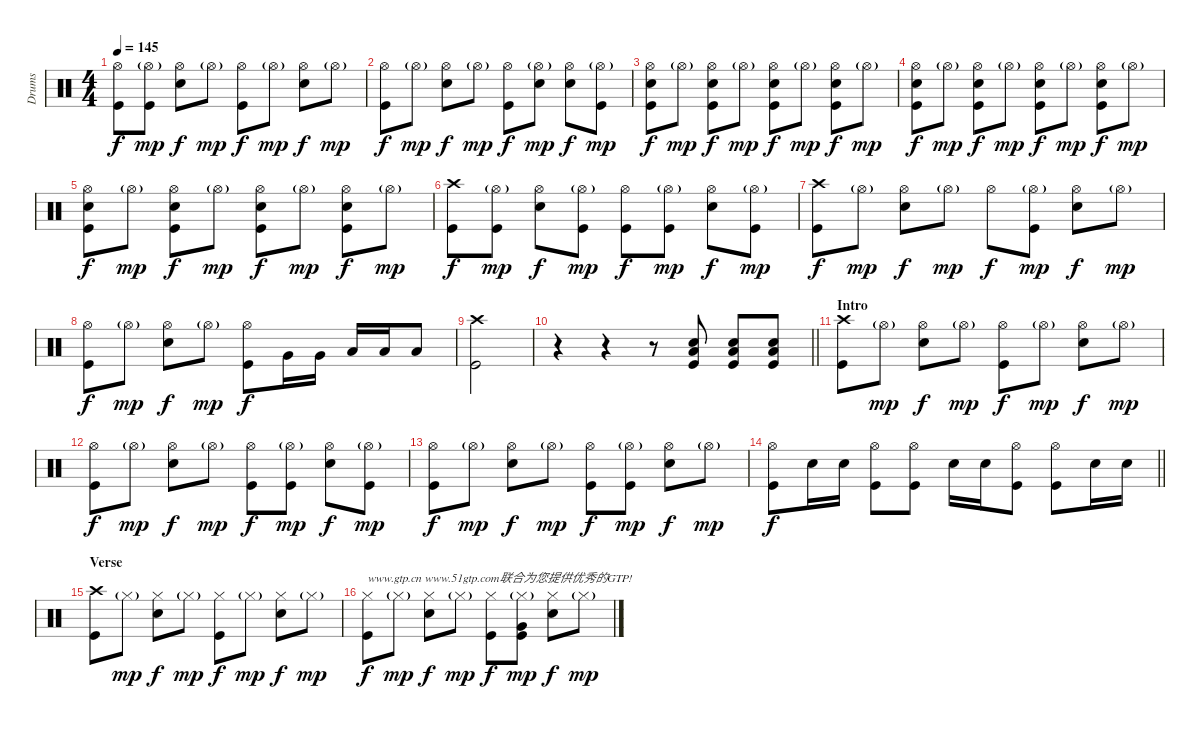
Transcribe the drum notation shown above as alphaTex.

\track ("Drums" "Drums") {instrument percussion}
\staff {score}
\articulation defaults
\ts (4 4)
\tempo 145
\clef neutral
\ks c
("Hi-Hat (open)" "Kick (hit)").8{dy f} ("Hi-Hat (open)"{g} "Kick (hit)").8{dy mp} ("Hi-Hat (open)" "Snare (hit) 2").8{dy f} "Hi-Hat (open)"{g}.8{dy mp} ("Hi-Hat (open)" "Kick (hit)").8{dy f} "Hi-Hat (open)"{g}.8{dy mp} ("Hi-Hat (open)" "Snare (hit) 2").8{dy f} "Hi-Hat (open)"{g}.8{dy mp} |
("Hi-Hat (open)" "Kick (hit)").8{dy f} "Hi-Hat (open)"{g}.8{dy mp} ("Hi-Hat (open)" "Snare (hit) 2").8{dy f} "Hi-Hat (open)"{g}.8{dy mp} ("Hi-Hat (open)" "Kick (hit)").8{dy f} ("Hi-Hat (open)"{g} "Snare (hit) 2").8{dy mp} ("Hi-Hat (open)" "Snare (hit) 2").8{dy f} ("Hi-Hat (open)"{g} "Kick (hit)").8{dy mp} |
("Hi-Hat (open)" "Snare (hit) 2" "Kick (hit)").8{dy f} "Hi-Hat (open)"{g}.8{dy mp} ("Hi-Hat (open)" "Snare (hit) 2" "Kick (hit)").8{dy f} "Hi-Hat (open)"{g}.8{dy mp} ("Hi-Hat (open)" "Snare (hit) 2" "Kick (hit)").8{dy f} "Hi-Hat (open)"{g}.8{dy mp} ("Hi-Hat (open)" "Snare (hit) 2" "Kick (hit)").8{dy f} "Hi-Hat (open)"{g}.8{dy mp} |
("Hi-Hat (open)" "Snare (hit) 2" "Kick (hit)").8{dy f} "Hi-Hat (open)"{g}.8{dy mp} ("Hi-Hat (open)" "Snare (hit) 2" "Kick (hit)").8{dy f} "Hi-Hat (open)"{g}.8{dy mp} ("Hi-Hat (open)" "Snare (hit) 2" "Kick (hit)").8{dy f} "Hi-Hat (open)"{g}.8{dy mp} ("Hi-Hat (open)" "Snare (hit) 2" "Kick (hit)").8{dy f} "Hi-Hat (open)"{g}.8{dy mp} |
("Hi-Hat (open)" "Snare (hit) 2" "Kick (hit)").8{dy f} "Hi-Hat (open)"{g}.8{dy mp} ("Hi-Hat (open)" "Snare (hit) 2" "Kick (hit)").8{dy f} "Hi-Hat (open)"{g}.8{dy mp} ("Hi-Hat (open)" "Snare (hit) 2" "Kick (hit)").8{dy f} "Hi-Hat (open)"{g}.8{dy mp} ("Hi-Hat (open)" "Snare (hit) 2" "Kick (hit)").8{dy f} "Hi-Hat (open)"{g}.8{dy mp} |
("Crash high (hit)" "Kick (hit)").8{dy f} ("Hi-Hat (open)"{g} "Kick (hit)").8{dy mp} ("Hi-Hat (open)" "Snare (hit) 2").8{dy f} ("Hi-Hat (open)"{g} "Kick (hit)").8{dy mp} ("Hi-Hat (open)" "Kick (hit)").8{dy f} ("Hi-Hat (open)"{g} "Kick (hit)").8{dy mp} ("Hi-Hat (open)" "Snare (hit) 2").8{dy f} ("Hi-Hat (open)"{g} "Kick (hit)").8{dy mp} |
("Crash high (hit)" "Kick (hit)").8{dy f} "Hi-Hat (open)"{g}.8{dy mp} ("Hi-Hat (open)" "Snare (hit) 2").8{dy f} "Hi-Hat (open)"{g}.8{dy mp} "Hi-Hat (open)".8{dy f} ("Hi-Hat (open)"{g} "Kick (hit)").8{dy mp} ("Hi-Hat (open)" "Snare (hit) 2").8{dy f} "Hi-Hat (open)"{g}.8{dy mp} |
("Hi-Hat (open)" "Kick (hit)").8{dy f} "Hi-Hat (open)"{g}.8{dy mp} ("Hi-Hat (open)" "Snare (hit) 2").8{dy f} "Hi-Hat (open)"{g}.8{dy mp} ("Hi-Hat (open)" "Kick (hit)").8{dy f} "Very Low Tom (hit)".16 "Very Low Tom (hit)".16 "Low Floor Tom (hit)".16 "Low Floor Tom (hit)".16 "Low Floor Tom (hit)".8 |
("Crash high (hit)" "Kick (hit)").2 |
\barLineRight lightlight
r.4 r.4 r.8 ("Snare (hit) 2" "Low Floor Tom (hit)" "Kick (hit)").8 ("Snare (hit) 2" "Low Floor Tom (hit)" "Kick (hit)").8 ("Snare (hit) 2" "Low Floor Tom (hit)" "Kick (hit)").8 |
\section ("" "Intro")
("Crash high (hit)" "Kick (hit)").8 "Hi-Hat (open)"{g}.8{dy mp} ("Hi-Hat (open)" "Snare (hit) 2").8{dy f} "Hi-Hat (open)"{g}.8{dy mp} ("Hi-Hat (open)" "Kick (hit)").8{dy f} "Hi-Hat (open)"{g}.8{dy mp} ("Hi-Hat (open)" "Snare (hit) 2").8{dy f} "Hi-Hat (open)"{g}.8{dy mp} |
("Hi-Hat (open)" "Kick (hit)").8{dy f} "Hi-Hat (open)"{g}.8{dy mp} ("Hi-Hat (open)" "Snare (hit) 2").8{dy f} "Hi-Hat (open)"{g}.8{dy mp} ("Hi-Hat (open)" "Kick (hit)").8{dy f} ("Hi-Hat (open)"{g} "Kick (hit)").8{dy mp} ("Hi-Hat (open)" "Snare (hit) 2").8{dy f} ("Hi-Hat (open)"{g} "Kick (hit)").8{dy mp} |
("Hi-Hat (open)" "Kick (hit)").8{dy f} "Hi-Hat (open)"{g}.8{dy mp} ("Hi-Hat (open)" "Snare (hit) 2").8{dy f} "Hi-Hat (open)"{g}.8{dy mp} ("Hi-Hat (open)" "Kick (hit)").8{dy f} ("Hi-Hat (open)"{g} "Kick (hit)").8{dy mp} ("Hi-Hat (open)" "Snare (hit) 2").8{dy f} "Hi-Hat (open)"{g}.8{dy mp} |
\barLineRight lightlight
("Hi-Hat (open)" "Kick (hit)").8{dy f} "Snare (hit) 2".16 "Snare (hit) 2".16 ("Hi-Hat (open)" "Kick (hit)").8 ("Hi-Hat (open)" "Kick (hit)").8 "Snare (hit) 2".16 "Snare (hit) 2".16 ("Hi-Hat (open)" "Kick (hit)").8 ("Hi-Hat (open)" "Kick (hit)").8 "Snare (hit) 2".16 "Snare (hit) 2".16 |
\section ("" "Verse")
("Crash high (hit)" "Kick (hit)").8 "Hi-Hat (closed)"{g}.8{dy mp} ("Hi-Hat (closed)" "Snare (hit) 2").8{dy f} "Hi-Hat (closed)"{g}.8{dy mp} ("Hi-Hat (closed)" "Kick (hit)").8{dy f} "Hi-Hat (closed)"{g}.8{dy mp} ("Hi-Hat (closed)" "Snare (hit) 2").8{dy f} "Hi-Hat (closed)"{g}.8{dy mp} |
("Hi-Hat (closed)" "Kick (hit)").8{txt "www.gtp.cn www.51gtp.com联合为您提供优秀的GTP!" dy f} "Hi-Hat (closed)"{g}.8{dy mp} ("Hi-Hat (closed)" "Snare (hit) 2").8{dy f} "Hi-Hat (closed)"{g}.8{dy mp} ("Hi-Hat (closed)" "Kick (hit)").8{dy f} ("Hi-Hat (closed)"{g} "Very Low Tom (hit)" "Kick (hit)").8{dy mp} ("Hi-Hat (closed)" "Snare (hit) 2").8{dy f} "Hi-Hat (closed)"{g}.8{dy mp}
